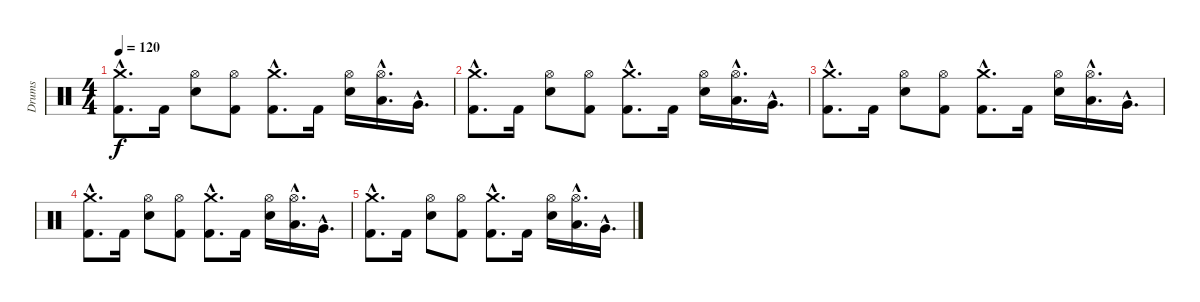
\track ("Drums" "Drums") {instrument percussion}
\staff {score}
\articulation defaults
\ts (4 4)
\tempo 120
\clef neutral
\ks c
("Crash medium (hit)"{hac} "Kick (hit) 2"{hac}).8{d dy f} "Kick (hit) 2".16 ("Hi-Hat (open)" "Electric Snare (hit)").8 ("Hi-Hat (open)" "Kick (hit) 2").8 ("Crash medium (hit)"{hac} "Kick (hit) 2"{hac}).8{d} "Kick (hit) 2".16 ("Hi-Hat (open)" "Electric Snare (hit)").16 ("Hi-Hat (open)"{hac} "Low Tom (hit)"{hac}).16{d} "Very Low Tom (hit)"{hac}.16{d} |
("Crash medium (hit)"{hac} "Kick (hit) 2"{hac}).8{d} "Kick (hit) 2".16 ("Hi-Hat (open)" "Electric Snare (hit)").8 ("Hi-Hat (open)" "Kick (hit) 2").8 ("Crash medium (hit)"{hac} "Kick (hit) 2"{hac}).8{d} "Kick (hit) 2".16 ("Hi-Hat (open)" "Electric Snare (hit)").16 ("Hi-Hat (open)"{hac} "Low Tom (hit)"{hac}).16{d} "Very Low Tom (hit)"{hac}.16{d} |
("Crash medium (hit)"{hac} "Kick (hit) 2"{hac}).8{d} "Kick (hit) 2".16 ("Hi-Hat (open)" "Electric Snare (hit)").8 ("Hi-Hat (open)" "Kick (hit) 2").8 ("Crash medium (hit)"{hac} "Kick (hit) 2"{hac}).8{d} "Kick (hit) 2".16 ("Hi-Hat (open)" "Electric Snare (hit)").16 ("Hi-Hat (open)"{hac} "Low Tom (hit)"{hac}).16{d} "Very Low Tom (hit)"{hac}.16{d} |
("Crash medium (hit)"{hac} "Kick (hit) 2"{hac}).8{d} "Kick (hit) 2".16 ("Hi-Hat (open)" "Electric Snare (hit)").8 ("Hi-Hat (open)" "Kick (hit) 2").8 ("Crash medium (hit)"{hac} "Kick (hit) 2"{hac}).8{d} "Kick (hit) 2".16 ("Hi-Hat (open)" "Electric Snare (hit)").16 ("Hi-Hat (open)"{hac} "Low Tom (hit)"{hac}).16{d} "Very Low Tom (hit)"{hac}.16{d} |
("Crash medium (hit)"{hac} "Kick (hit) 2"{hac}).8{d} "Kick (hit) 2".16 ("Hi-Hat (open)" "Electric Snare (hit)").8 ("Hi-Hat (open)" "Kick (hit) 2").8 ("Crash medium (hit)"{hac} "Kick (hit) 2"{hac}).8{d} "Kick (hit) 2".16 ("Hi-Hat (open)" "Electric Snare (hit)").16 ("Hi-Hat (open)"{hac} "Low Tom (hit)"{hac}).16{d} "Very Low Tom (hit)"{hac}.16{d}
